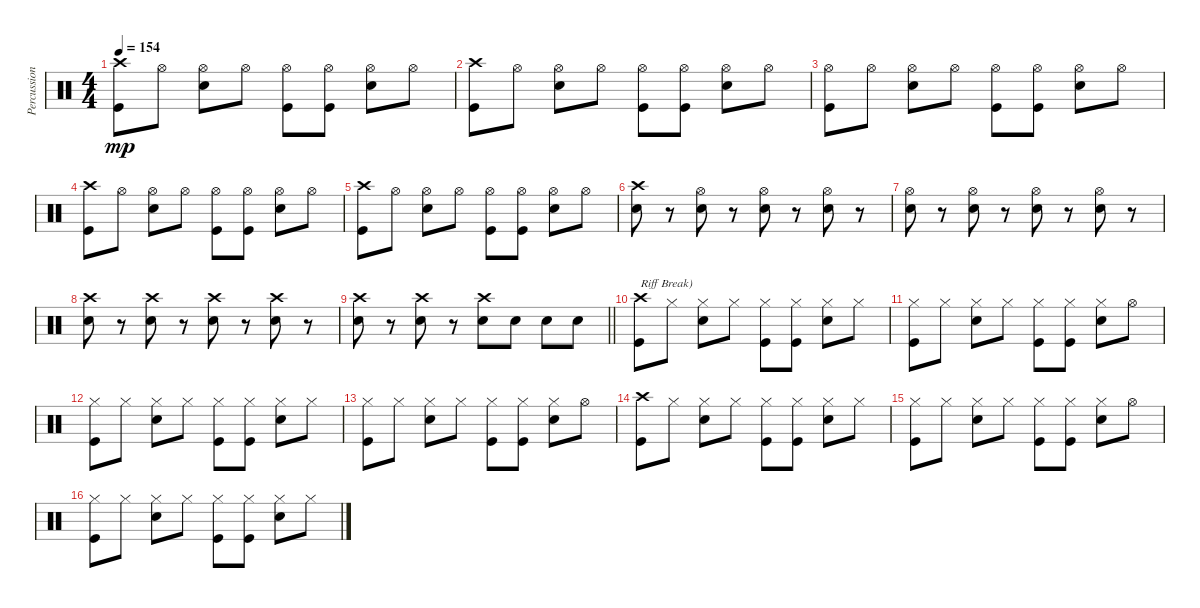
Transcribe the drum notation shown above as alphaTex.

\track ("Percussion" "Percussion") {instrument percussion}
\staff {score}
\articulation defaults
\ts (4 4)
\tempo 154
\clef neutral
\ks c
("Crash high (hit)" "Kick (hit)").8{dy mp} "Hi-Hat (open)".8 ("Hi-Hat (open)" "Electric Snare (hit)").8 "Hi-Hat (open)".8 ("Hi-Hat (open)" "Kick (hit)").8 ("Hi-Hat (open)" "Kick (hit)").8 ("Hi-Hat (open)" "Electric Snare (hit)").8 "Hi-Hat (open)".8 |
("Crash high (hit)" "Kick (hit)").8 "Hi-Hat (open)".8 ("Hi-Hat (open)" "Electric Snare (hit)").8 "Hi-Hat (open)".8 ("Hi-Hat (open)" "Kick (hit)").8 ("Hi-Hat (open)" "Kick (hit)").8 ("Hi-Hat (open)" "Electric Snare (hit)").8 "Hi-Hat (open)".8 |
("Hi-Hat (open)" "Kick (hit)").8 "Hi-Hat (open)".8 ("Hi-Hat (open)" "Electric Snare (hit)").8 "Hi-Hat (open)".8 ("Hi-Hat (open)" "Kick (hit)").8 ("Hi-Hat (open)" "Kick (hit)").8 ("Hi-Hat (open)" "Electric Snare (hit)").8 "Hi-Hat (open)".8 |
("Crash high (hit)" "Kick (hit)").8 "Hi-Hat (open)".8 ("Hi-Hat (open)" "Electric Snare (hit)").8 "Hi-Hat (open)".8 ("Hi-Hat (open)" "Kick (hit)").8 ("Hi-Hat (open)" "Kick (hit)").8 ("Hi-Hat (open)" "Electric Snare (hit)").8 "Hi-Hat (open)".8 |
("Crash high (hit)" "Kick (hit)").8 "Hi-Hat (open)".8 ("Hi-Hat (open)" "Electric Snare (hit)").8 "Hi-Hat (open)".8 ("Hi-Hat (open)" "Kick (hit)").8 ("Hi-Hat (open)" "Kick (hit)").8 ("Hi-Hat (open)" "Electric Snare (hit)").8 "Hi-Hat (open)".8 |
("Crash high (hit)" "Electric Snare (hit)").8 r.8 ("Hi-Hat (open)" "Electric Snare (hit)").8 r.8 ("Hi-Hat (open)" "Electric Snare (hit)").8 r.8 ("Hi-Hat (open)" "Electric Snare (hit)").8 r.8 |
("Hi-Hat (open)" "Electric Snare (hit)").8 r.8 ("Hi-Hat (open)" "Electric Snare (hit)").8 r.8 ("Hi-Hat (open)" "Electric Snare (hit)").8 r.8 ("Hi-Hat (open)" "Electric Snare (hit)").8 r.8 |
("Crash high (hit)" "Electric Snare (hit)").8 r.8 ("Crash high (hit)" "Electric Snare (hit)").8 r.8 ("Crash high (hit)" "Electric Snare (hit)").8 r.8 ("Crash high (hit)" "Electric Snare (hit)").8 r.8 |
\barLineRight lightlight
("Crash high (hit)" "Electric Snare (hit)").8 r.8 ("Crash high (hit)" "Electric Snare (hit)").8 r.8 ("Crash high (hit)" "Electric Snare (hit)").8 "Electric Snare (hit)".8 "Electric Snare (hit)".8 "Electric Snare (hit)".8 |
("Crash high (hit)" "Kick (hit)").8{txt "Riff Break)"} "Hi-Hat (closed)".8 ("Hi-Hat (closed)" "Electric Snare (hit)").8 "Hi-Hat (closed)".8 ("Hi-Hat (closed)" "Kick (hit)").8 ("Hi-Hat (closed)" "Kick (hit)").8 ("Hi-Hat (closed)" "Electric Snare (hit)").8 "Hi-Hat (closed)".8 |
("Hi-Hat (closed)" "Kick (hit)").8 "Hi-Hat (closed)".8 ("Hi-Hat (closed)" "Electric Snare (hit)").8 "Hi-Hat (closed)".8 ("Hi-Hat (closed)" "Kick (hit)").8 ("Hi-Hat (closed)" "Kick (hit)").8 ("Hi-Hat (closed)" "Electric Snare (hit)").8 "Hi-Hat (open)".8 |
("Hi-Hat (closed)" "Kick (hit)").8 "Hi-Hat (closed)".8 ("Hi-Hat (closed)" "Electric Snare (hit)").8 "Hi-Hat (closed)".8 ("Hi-Hat (closed)" "Kick (hit)").8 ("Hi-Hat (closed)" "Kick (hit)").8 ("Hi-Hat (closed)" "Electric Snare (hit)").8 "Hi-Hat (closed)".8 |
("Hi-Hat (closed)" "Kick (hit)").8 "Hi-Hat (closed)".8 ("Hi-Hat (closed)" "Electric Snare (hit)").8 "Hi-Hat (closed)".8 ("Hi-Hat (closed)" "Kick (hit)").8 ("Hi-Hat (closed)" "Kick (hit)").8 ("Hi-Hat (closed)" "Electric Snare (hit)").8 "Hi-Hat (open)".8 |
("Crash high (hit)" "Kick (hit)").8 "Hi-Hat (closed)".8 ("Hi-Hat (closed)" "Electric Snare (hit)").8 "Hi-Hat (closed)".8 ("Hi-Hat (closed)" "Kick (hit)").8 ("Hi-Hat (closed)" "Kick (hit)").8 ("Hi-Hat (closed)" "Electric Snare (hit)").8 "Hi-Hat (closed)".8 |
("Hi-Hat (closed)" "Kick (hit)").8 "Hi-Hat (closed)".8 ("Hi-Hat (closed)" "Electric Snare (hit)").8 "Hi-Hat (closed)".8 ("Hi-Hat (closed)" "Kick (hit)").8 ("Hi-Hat (closed)" "Kick (hit)").8 ("Hi-Hat (closed)" "Electric Snare (hit)").8 "Hi-Hat (open)".8 |
("Hi-Hat (closed)" "Kick (hit)").8 "Hi-Hat (closed)".8 ("Hi-Hat (closed)" "Electric Snare (hit)").8 "Hi-Hat (closed)".8 ("Hi-Hat (closed)" "Kick (hit)").8 ("Hi-Hat (closed)" "Kick (hit)").8 ("Hi-Hat (closed)" "Electric Snare (hit)").8 "Hi-Hat (closed)".8
